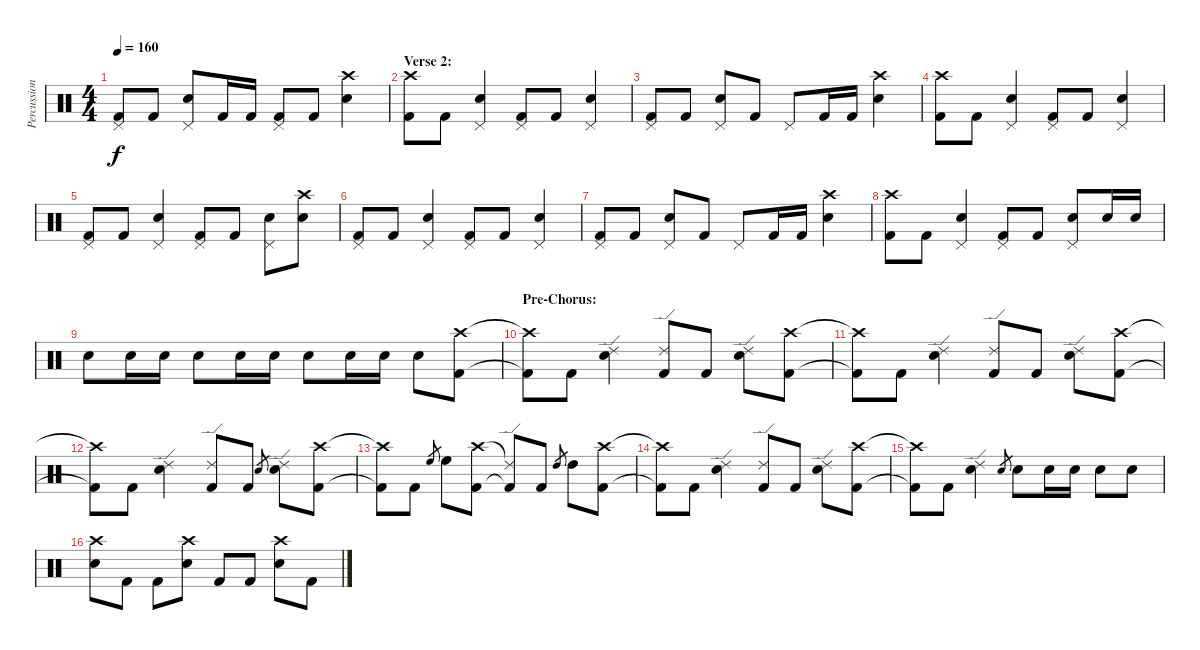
\track ("Percussion" "Percussion") {instrument percussion}
\staff {score}
\articulation defaults
\ts (4 4)
\tempo 160
\clef neutral
\ks c
("Pedal Hi-Hat (hit)" "Kick (hit) 2").8{dy f} "Kick (hit) 2".8 ("Pedal Hi-Hat (hit)" "Snare (hit) 2").8 "Kick (hit) 2".16 "Kick (hit) 2".16 ("Pedal Hi-Hat (hit)" "Kick (hit) 2").8 "Kick (hit) 2".8 ("Crash high (hit)" "Snare (hit) 2").4 |
\section ("" "Verse 2:")
("Crash high (hit)" "Kick (hit) 2").8 "Kick (hit) 2".8 ("Pedal Hi-Hat (hit)" "Snare (hit) 2").4 ("Pedal Hi-Hat (hit)" "Kick (hit) 2").8 "Kick (hit) 2".8 ("Pedal Hi-Hat (hit)" "Snare (hit) 2").4 |
("Pedal Hi-Hat (hit)" "Kick (hit) 2").8 "Kick (hit) 2".8 ("Pedal Hi-Hat (hit)" "Snare (hit) 2").8 "Kick (hit) 2".8 "Pedal Hi-Hat (hit)".8 "Kick (hit) 2".16 "Kick (hit) 2".16 ("Crash high (hit)" "Snare (hit) 2").4 |
("Crash high (hit)" "Kick (hit) 2").8 "Kick (hit) 2".8 ("Pedal Hi-Hat (hit)" "Snare (hit) 2").4 ("Pedal Hi-Hat (hit)" "Kick (hit) 2").8 "Kick (hit) 2".8 ("Pedal Hi-Hat (hit)" "Snare (hit) 2").4 |
("Pedal Hi-Hat (hit)" "Kick (hit) 2").8 "Kick (hit) 2".8 ("Pedal Hi-Hat (hit)" "Snare (hit) 2").4 ("Pedal Hi-Hat (hit)" "Kick (hit) 2").8 "Kick (hit) 2".8 ("Pedal Hi-Hat (hit)" "Snare (hit) 2").8 ("Crash high (hit)" "Snare (hit) 2").8 |
("Pedal Hi-Hat (hit)" "Kick (hit) 2").8 "Kick (hit) 2".8 ("Pedal Hi-Hat (hit)" "Snare (hit) 2").4 ("Pedal Hi-Hat (hit)" "Kick (hit) 2").8 "Kick (hit) 2".8 ("Pedal Hi-Hat (hit)" "Snare (hit) 2").4 |
("Pedal Hi-Hat (hit)" "Kick (hit) 2").8 "Kick (hit) 2".8 ("Pedal Hi-Hat (hit)" "Snare (hit) 2").8 "Kick (hit) 2".8 "Pedal Hi-Hat (hit)".8 "Kick (hit) 2".16 "Kick (hit) 2".16 ("Crash high (hit)" "Snare (hit) 2").4 |
("Crash high (hit)" "Kick (hit) 2").8 "Kick (hit) 2".8 ("Pedal Hi-Hat (hit)" "Snare (hit) 2").4 ("Pedal Hi-Hat (hit)" "Kick (hit) 2").8 "Kick (hit) 2".8 ("Pedal Hi-Hat (hit)" "Snare (hit) 2").8 "Snare (hit) 2".16 "Snare (hit) 2".16 |
"Snare (hit) 2".8 "Snare (hit) 2".16 "Snare (hit) 2".16 "Snare (hit) 2".8 "Snare (hit) 2".16 "Snare (hit) 2".16 "Snare (hit) 2".8 "Snare (hit) 2".16 "Snare (hit) 2".16 "Snare (hit) 2".8 ("Crash high (hit)" "Kick (hit) 2").8 |
\section ("" "Pre-Chorus:")
("Crash high (hit)"{t} "Kick (hit) 2"{t}).8 "Kick (hit) 2".8 ("Ride (edge) 2" "Snare (hit) 2").4 ("Ride (edge) 2" "Kick (hit) 2").8 "Kick (hit) 2".8 ("Ride (edge) 2" "Snare (hit) 2").8 ("Crash high (hit)" "Kick (hit) 2").8 |
("Crash high (hit)"{t} "Kick (hit) 2"{t}).8 "Kick (hit) 2".8 ("Ride (edge) 2" "Snare (hit) 2").4 ("Ride (edge) 2" "Kick (hit) 2").8 "Kick (hit) 2".8 ("Ride (edge) 2" "Snare (hit) 2").8 ("Crash high (hit)" "Kick (hit) 2").8 |
("Crash high (hit)"{t} "Kick (hit) 2"{t}).8 "Kick (hit) 2".8 ("Ride (edge) 2" "Snare (hit) 2").4 ("Ride (edge) 2" "Kick (hit) 2").8 "Kick (hit) 2".8 "Snare (hit) 2".8{gr} ("Ride (edge) 2" "Snare (hit) 2").8 ("Crash high (hit)" "Kick (hit) 2").8 |
("Crash high (hit)"{t} "Kick (hit) 2"{t}).8 "Kick (hit) 2".8 "High Floor Tom (hit)".8{gr} "High Floor Tom (hit)".8 ("Crash high (hit)" "Kick (hit) 2").8 ("Ride (edge) 2"{t} "Kick (hit) 2"{t}).8 "Kick (hit) 2".8 "High Tom (hit)".8{gr} "High Tom (hit)".8 ("Crash high (hit)" "Kick (hit) 2").8 |
("Crash high (hit)"{t} "Kick (hit) 2"{t}).8 "Kick (hit) 2".8 ("Ride (edge) 2" "Snare (hit) 2").4 ("Ride (edge) 2" "Kick (hit) 2").8 "Kick (hit) 2".8 ("Ride (edge) 2" "Snare (hit) 2").8 ("Crash high (hit)" "Kick (hit) 2").8 |
("Crash high (hit)"{t} "Kick (hit) 2"{t}).8 "Kick (hit) 2".8 ("Ride (edge) 2" "Snare (hit) 2").4 "Snare (hit) 2".8{gr} "Snare (hit) 2".8 "Snare (hit) 2".16 "Snare (hit) 2".16 "Snare (hit) 2".8 "Snare (hit) 2".8 |
("Crash high (hit)" "Snare (hit) 2").8 "Kick (hit) 2".8 "Kick (hit) 2".8 ("Crash high (hit)" "Snare (hit) 2").8 "Kick (hit) 2".8 "Kick (hit) 2".8 ("Crash high (hit)" "Snare (hit) 2").8 "Kick (hit) 2".8
